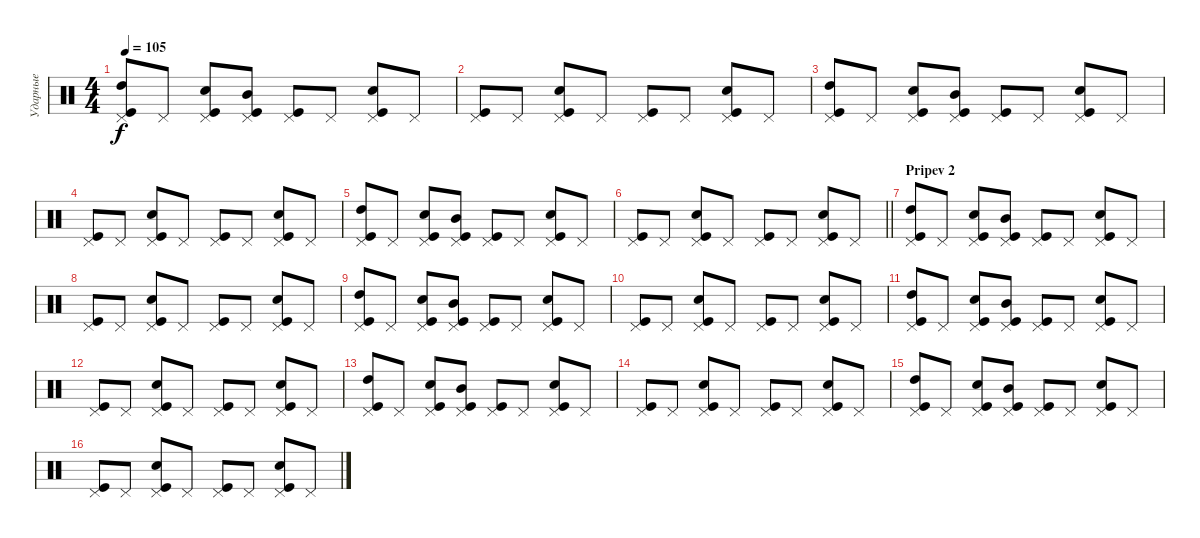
\track ("Ударные" "Ударные") {instrument percussion}
\staff {score}
\articulation defaults
\ts (4 4)
\tempo 105
\clef neutral
\ks c
("Pedal Hi-Hat (hit)" "Kick (hit)" "High Tom (hit)").8{dy f} "Pedal Hi-Hat (hit)".8 ("Pedal Hi-Hat (hit)" "Kick (hit)" "Snare (hit) 2").8 ("Pedal Hi-Hat (hit)" "Kick (hit)" "Mid Tom (hit)").8 ("Pedal Hi-Hat (hit)" "Kick (hit)").8 "Pedal Hi-Hat (hit)".8 ("Pedal Hi-Hat (hit)" "Kick (hit)" "Snare (hit) 2").8 "Pedal Hi-Hat (hit)".8 |
("Pedal Hi-Hat (hit)" "Kick (hit)").8 "Pedal Hi-Hat (hit)".8 ("Pedal Hi-Hat (hit)" "Kick (hit)" "Snare (hit) 2").8 "Pedal Hi-Hat (hit)".8 ("Pedal Hi-Hat (hit)" "Kick (hit)").8 "Pedal Hi-Hat (hit)".8 ("Pedal Hi-Hat (hit)" "Kick (hit)" "Snare (hit) 2").8 "Pedal Hi-Hat (hit)".8 |
("Pedal Hi-Hat (hit)" "Kick (hit)" "High Tom (hit)").8 "Pedal Hi-Hat (hit)".8 ("Pedal Hi-Hat (hit)" "Kick (hit)" "Snare (hit) 2").8 ("Pedal Hi-Hat (hit)" "Kick (hit)" "Mid Tom (hit)").8 ("Pedal Hi-Hat (hit)" "Kick (hit)").8 "Pedal Hi-Hat (hit)".8 ("Pedal Hi-Hat (hit)" "Kick (hit)" "Snare (hit) 2").8 "Pedal Hi-Hat (hit)".8 |
("Pedal Hi-Hat (hit)" "Kick (hit)").8 "Pedal Hi-Hat (hit)".8 ("Pedal Hi-Hat (hit)" "Kick (hit)" "Snare (hit) 2").8 "Pedal Hi-Hat (hit)".8 ("Pedal Hi-Hat (hit)" "Kick (hit)").8 "Pedal Hi-Hat (hit)".8 ("Pedal Hi-Hat (hit)" "Kick (hit)" "Snare (hit) 2").8 "Pedal Hi-Hat (hit)".8 |
("Pedal Hi-Hat (hit)" "Kick (hit)" "High Tom (hit)").8 "Pedal Hi-Hat (hit)".8 ("Pedal Hi-Hat (hit)" "Kick (hit)" "Snare (hit) 2").8 ("Pedal Hi-Hat (hit)" "Kick (hit)" "Mid Tom (hit)").8 ("Pedal Hi-Hat (hit)" "Kick (hit)").8 "Pedal Hi-Hat (hit)".8 ("Pedal Hi-Hat (hit)" "Kick (hit)" "Snare (hit) 2").8 "Pedal Hi-Hat (hit)".8 |
\barLineRight lightlight
("Pedal Hi-Hat (hit)" "Kick (hit)").8 "Pedal Hi-Hat (hit)".8 ("Pedal Hi-Hat (hit)" "Kick (hit)" "Snare (hit) 2").8 "Pedal Hi-Hat (hit)".8 ("Pedal Hi-Hat (hit)" "Kick (hit)").8 "Pedal Hi-Hat (hit)".8 ("Pedal Hi-Hat (hit)" "Kick (hit)" "Snare (hit) 2").8 "Pedal Hi-Hat (hit)".8 |
\section ("" "Pripev 2")
("Pedal Hi-Hat (hit)" "Kick (hit)" "High Tom (hit)").8 "Pedal Hi-Hat (hit)".8 ("Pedal Hi-Hat (hit)" "Kick (hit)" "Snare (hit) 2").8 ("Pedal Hi-Hat (hit)" "Kick (hit)" "Mid Tom (hit)").8 ("Pedal Hi-Hat (hit)" "Kick (hit)").8 "Pedal Hi-Hat (hit)".8 ("Pedal Hi-Hat (hit)" "Kick (hit)" "Snare (hit) 2").8 "Pedal Hi-Hat (hit)".8 |
("Pedal Hi-Hat (hit)" "Kick (hit)").8 "Pedal Hi-Hat (hit)".8 ("Pedal Hi-Hat (hit)" "Kick (hit)" "Snare (hit) 2").8 "Pedal Hi-Hat (hit)".8 ("Pedal Hi-Hat (hit)" "Kick (hit)").8 "Pedal Hi-Hat (hit)".8 ("Pedal Hi-Hat (hit)" "Kick (hit)" "Snare (hit) 2").8 "Pedal Hi-Hat (hit)".8 |
("Pedal Hi-Hat (hit)" "Kick (hit)" "High Tom (hit)").8 "Pedal Hi-Hat (hit)".8 ("Pedal Hi-Hat (hit)" "Kick (hit)" "Snare (hit) 2").8 ("Pedal Hi-Hat (hit)" "Kick (hit)" "Mid Tom (hit)").8 ("Pedal Hi-Hat (hit)" "Kick (hit)").8 "Pedal Hi-Hat (hit)".8 ("Pedal Hi-Hat (hit)" "Kick (hit)" "Snare (hit) 2").8 "Pedal Hi-Hat (hit)".8 |
("Pedal Hi-Hat (hit)" "Kick (hit)").8 "Pedal Hi-Hat (hit)".8 ("Pedal Hi-Hat (hit)" "Kick (hit)" "Snare (hit) 2").8 "Pedal Hi-Hat (hit)".8 ("Pedal Hi-Hat (hit)" "Kick (hit)").8 "Pedal Hi-Hat (hit)".8 ("Pedal Hi-Hat (hit)" "Kick (hit)" "Snare (hit) 2").8 "Pedal Hi-Hat (hit)".8 |
("Pedal Hi-Hat (hit)" "Kick (hit)" "High Tom (hit)").8 "Pedal Hi-Hat (hit)".8 ("Pedal Hi-Hat (hit)" "Kick (hit)" "Snare (hit) 2").8 ("Pedal Hi-Hat (hit)" "Kick (hit)" "Mid Tom (hit)").8 ("Pedal Hi-Hat (hit)" "Kick (hit)").8 "Pedal Hi-Hat (hit)".8 ("Pedal Hi-Hat (hit)" "Kick (hit)" "Snare (hit) 2").8 "Pedal Hi-Hat (hit)".8 |
("Pedal Hi-Hat (hit)" "Kick (hit)").8 "Pedal Hi-Hat (hit)".8 ("Pedal Hi-Hat (hit)" "Kick (hit)" "Snare (hit) 2").8 "Pedal Hi-Hat (hit)".8 ("Pedal Hi-Hat (hit)" "Kick (hit)").8 "Pedal Hi-Hat (hit)".8 ("Pedal Hi-Hat (hit)" "Kick (hit)" "Snare (hit) 2").8 "Pedal Hi-Hat (hit)".8 |
("Pedal Hi-Hat (hit)" "Kick (hit)" "High Tom (hit)").8 "Pedal Hi-Hat (hit)".8 ("Pedal Hi-Hat (hit)" "Kick (hit)" "Snare (hit) 2").8 ("Pedal Hi-Hat (hit)" "Kick (hit)" "Mid Tom (hit)").8 ("Pedal Hi-Hat (hit)" "Kick (hit)").8 "Pedal Hi-Hat (hit)".8 ("Pedal Hi-Hat (hit)" "Kick (hit)" "Snare (hit) 2").8 "Pedal Hi-Hat (hit)".8 |
("Pedal Hi-Hat (hit)" "Kick (hit)").8 "Pedal Hi-Hat (hit)".8 ("Pedal Hi-Hat (hit)" "Kick (hit)" "Snare (hit) 2").8 "Pedal Hi-Hat (hit)".8 ("Pedal Hi-Hat (hit)" "Kick (hit)").8 "Pedal Hi-Hat (hit)".8 ("Pedal Hi-Hat (hit)" "Kick (hit)" "Snare (hit) 2").8 "Pedal Hi-Hat (hit)".8 |
("Pedal Hi-Hat (hit)" "Kick (hit)" "High Tom (hit)").8 "Pedal Hi-Hat (hit)".8 ("Pedal Hi-Hat (hit)" "Kick (hit)" "Snare (hit) 2").8 ("Pedal Hi-Hat (hit)" "Kick (hit)" "Mid Tom (hit)").8 ("Pedal Hi-Hat (hit)" "Kick (hit)").8 "Pedal Hi-Hat (hit)".8 ("Pedal Hi-Hat (hit)" "Kick (hit)" "Snare (hit) 2").8 "Pedal Hi-Hat (hit)".8 |
("Pedal Hi-Hat (hit)" "Kick (hit)").8 "Pedal Hi-Hat (hit)".8 ("Pedal Hi-Hat (hit)" "Kick (hit)" "Snare (hit) 2").8 "Pedal Hi-Hat (hit)".8 ("Pedal Hi-Hat (hit)" "Kick (hit)").8 "Pedal Hi-Hat (hit)".8 ("Pedal Hi-Hat (hit)" "Kick (hit)" "Snare (hit) 2").8 "Pedal Hi-Hat (hit)".8
